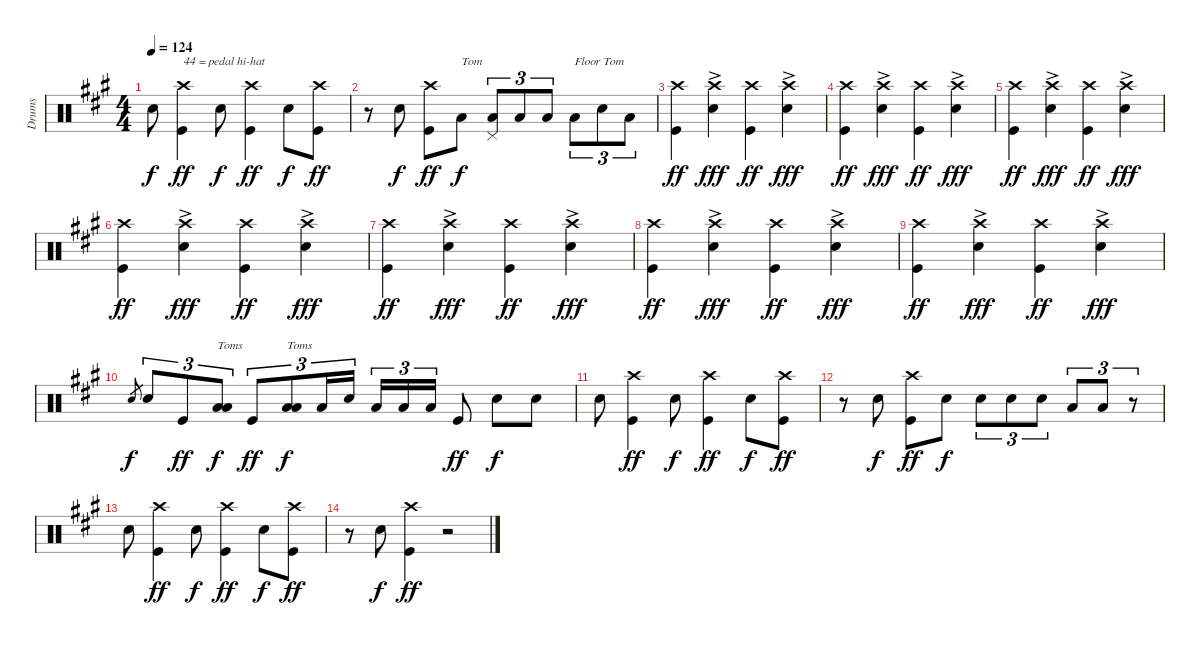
\track ("Drums" "Drums") {instrument percussion}
\staff {score}
\articulation defaults
\ts (4 4)
\tempo 124
\clef neutral
\ks a "Snare (hit) 2".8{dy f}
("Crash high (hit)" "Kick (hit)").4{txt "44 = pedal hi-hat" dy ff} "Snare (hit) 2".8{dy f} ("Crash high (hit)" "Kick (hit)").4{dy ff} "Snare (hit) 2".8{dy f} ("Crash high (hit)" "Kick (hit)").8{dy ff} |
r.8 "Snare (hit) 2".8{dy f} ("Crash high (hit)" "Kick (hit)").8{dy ff} "Low Tom (hit)".8{txt "Tom" dy f} ("Pedal Hi-Hat (hit)" "Low Tom (hit)").8{tu (3 2)} "Low Tom (hit)".8{tu (3 2)} "Low Tom (hit)".8{tu (3 2)} "Low Tom (hit)".8{tu (3 2) txt "Floor Tom"} "Snare (hit) 2".8{tu (3 2)} "Low Floor Tom (hit)".8{tu (3 2)} |
("Crash high (hit)" "Kick (hit)").4{dy ff} ("Crash high (hit)"{ac} "Snare (hit) 2").4{dy fff} ("Crash high (hit)" "Kick (hit)").4{dy ff} ("Crash high (hit)"{ac} "Snare (hit) 2").4{dy fff} |
("Crash high (hit)" "Kick (hit)").4{dy ff} ("Crash high (hit)"{ac} "Snare (hit) 2").4{dy fff} ("Crash high (hit)" "Kick (hit)").4{dy ff} ("Crash high (hit)"{ac} "Snare (hit) 2").4{dy fff} |
("Crash high (hit)" "Kick (hit)").4{dy ff} ("Crash high (hit)"{ac} "Snare (hit) 2").4{dy fff} ("Crash high (hit)" "Kick (hit)").4{dy ff} ("Crash high (hit)"{ac} "Snare (hit) 2").4{dy fff} |
("Crash high (hit)" "Kick (hit)").4{dy ff} ("Crash high (hit)"{ac} "Snare (hit) 2").4{dy fff} ("Crash high (hit)" "Kick (hit)").4{dy ff} ("Crash high (hit)"{ac} "Snare (hit) 2").4{dy fff} |
("Crash high (hit)" "Kick (hit)").4{dy ff} ("Crash high (hit)"{ac} "Snare (hit) 2").4{dy fff} ("Crash high (hit)" "Kick (hit)").4{dy ff} ("Crash high (hit)"{ac} "Snare (hit) 2").4{dy fff} |
("Crash high (hit)" "Kick (hit)").4{dy ff} ("Crash high (hit)"{ac} "Snare (hit) 2").4{dy fff} ("Crash high (hit)" "Kick (hit)").4{dy ff} ("Crash high (hit)"{ac} "Snare (hit) 2").4{dy fff} |
("Crash high (hit)" "Kick (hit)").4{dy ff} ("Crash high (hit)"{ac} "Snare (hit) 2").4{dy fff} ("Crash high (hit)" "Kick (hit)").4{dy ff} ("Crash high (hit)"{ac} "Snare (hit) 2").4{dy fff} |
"Snare (hit) 2".8{gr dy f} "Snare (hit) 2".8{tu (3 2)} "Kick (hit)".8{tu (3 2) dy ff} ("Low Tom (hit)" "Low Floor Tom (hit)").8{tu (3 2) txt "Toms" dy f} "Kick (hit)".8{tu (3 2) dy ff} ("Low Tom (hit)" "Low Floor Tom (hit)").8{tu (3 2) txt "Toms" dy f} "Low Tom (hit)".16{tu (3 2)} "Snare (hit) 2".16{tu (3 2)} "Low Floor Tom (hit)".16{tu (3 2)} "Low Tom (hit)".16{tu (3 2)} "Low Floor Tom (hit)".16{tu (3 2)} "Kick (hit)".8{dy ff} "Snare (hit) 2".8{dy f} "Snare (hit) 2".8 |
"Snare (hit) 2".8 ("Crash high (hit)" "Kick (hit)").4{dy ff} "Snare (hit) 2".8{dy f} ("Crash high (hit)" "Kick (hit)").4{dy ff} "Snare (hit) 2".8{dy f} ("Crash high (hit)" "Kick (hit)").8{dy ff} |
r.8 "Snare (hit) 2".8{dy f} ("Crash high (hit)" "Kick (hit)").8{dy ff} "Snare (hit) 2".8{dy f} "Snare (hit) 2".8{tu (3 2)} "Snare (hit) 2".8{tu (3 2)} "Snare (hit) 2".8{tu (3 2)} "Low Tom (hit)".8{tu (3 2)} "Low Tom (hit)".8{tu (3 2)} r.8{tu (3 2)} |
"Snare (hit) 2".8 ("Crash high (hit)" "Kick (hit)").4{dy ff} "Snare (hit) 2".8{dy f} ("Crash high (hit)" "Kick (hit)").4{dy ff} "Snare (hit) 2".8{dy f} ("Crash high (hit)" "Kick (hit)").8{dy ff} |
r.8 "Snare (hit) 2".8{dy f} ("Crash high (hit)" "Kick (hit)").4{dy ff} r.2
